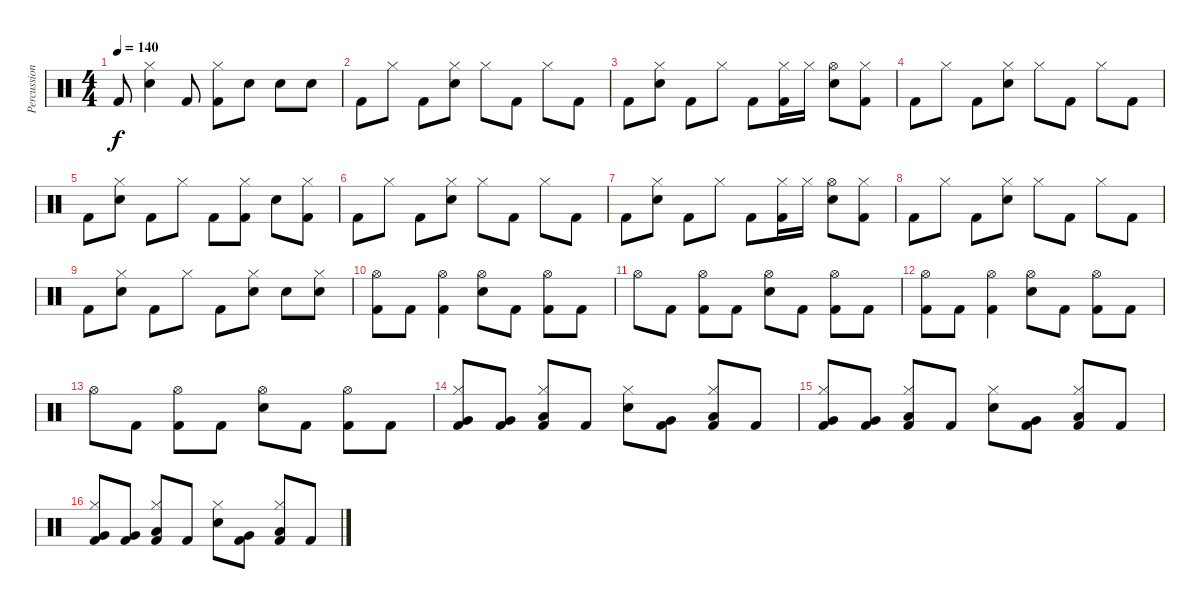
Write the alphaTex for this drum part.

\track ("Percussion" "Percussion") {instrument percussion}
\staff {score}
\articulation defaults
\ts (4 4)
\tempo 140
\clef neutral
\ks c "Kick (hit) 2".8{dy f}
("Electric Snare (hit)" "Hi-Hat (closed)").4 "Kick (hit) 2".8 ("Kick (hit) 2" "Hi-Hat (closed)").8 "Electric Snare (hit)".8 "Electric Snare (hit)".8 "Electric Snare (hit)".8 |
"Kick (hit) 2".8 "Hi-Hat (closed)".8 "Kick (hit) 2".8 ("Electric Snare (hit)" "Hi-Hat (closed)").8 "Hi-Hat (closed)".8 "Kick (hit) 2".8 "Hi-Hat (closed)".8 "Kick (hit) 2".8 |
"Kick (hit) 2".8 ("Electric Snare (hit)" "Hi-Hat (closed)").8 "Kick (hit) 2".8 "Hi-Hat (closed)".8 "Kick (hit) 2".8 ("Kick (hit) 2" "Hi-Hat (closed)").16 "Hi-Hat (closed)".16 ("Electric Snare (hit)" "Hi-Hat (open)").8 ("Kick (hit) 2" "Hi-Hat (closed)").8 |
"Kick (hit) 2".8 "Hi-Hat (closed)".8 "Kick (hit) 2".8 ("Electric Snare (hit)" "Hi-Hat (closed)").8 "Hi-Hat (closed)".8 "Kick (hit) 2".8 "Hi-Hat (closed)".8 "Kick (hit) 2".8 |
"Kick (hit) 2".8 ("Electric Snare (hit)" "Hi-Hat (closed)").8 "Kick (hit) 2".8 "Hi-Hat (closed)".8 "Kick (hit) 2".8 ("Kick (hit) 2" "Hi-Hat (closed)").8 "Electric Snare (hit)".8 ("Kick (hit) 2" "Hi-Hat (closed)").8 |
"Kick (hit) 2".8 "Hi-Hat (closed)".8 "Kick (hit) 2".8 ("Electric Snare (hit)" "Hi-Hat (closed)").8 "Hi-Hat (closed)".8 "Kick (hit) 2".8 "Hi-Hat (closed)".8 "Kick (hit) 2".8 |
"Kick (hit) 2".8 ("Electric Snare (hit)" "Hi-Hat (closed)").8 "Kick (hit) 2".8 "Hi-Hat (closed)".8 "Kick (hit) 2".8 ("Kick (hit) 2" "Hi-Hat (closed)").16 "Hi-Hat (closed)".16 ("Electric Snare (hit)" "Hi-Hat (open)").8 ("Kick (hit) 2" "Hi-Hat (closed)").8 |
"Kick (hit) 2".8 "Hi-Hat (closed)".8 "Kick (hit) 2".8 ("Electric Snare (hit)" "Hi-Hat (closed)").8 "Hi-Hat (closed)".8 "Kick (hit) 2".8 "Hi-Hat (closed)".8 "Kick (hit) 2".8 |
"Kick (hit) 2".8 ("Electric Snare (hit)" "Hi-Hat (closed)").8 "Kick (hit) 2".8 "Hi-Hat (closed)".8 "Kick (hit) 2".8 ("Electric Snare (hit)" "Hi-Hat (closed)").8 "Electric Snare (hit)".8 ("Electric Snare (hit)" "Hi-Hat (closed)").8 |
("Kick (hit) 2" "Hi-Hat (open)").8 "Kick (hit) 2".8 ("Kick (hit) 2" "Hi-Hat (open)").4 ("Electric Snare (hit)" "Hi-Hat (open)").8 "Kick (hit) 2".8 ("Kick (hit) 2" "Hi-Hat (open)").8 "Kick (hit) 2".8 |
"Hi-Hat (open)".8 "Kick (hit) 2".8 ("Kick (hit) 2" "Hi-Hat (open)").8 "Kick (hit) 2".8 ("Electric Snare (hit)" "Hi-Hat (open)").8 "Kick (hit) 2".8 ("Kick (hit) 2" "Hi-Hat (open)").8 "Kick (hit) 2".8 |
("Kick (hit) 2" "Hi-Hat (open)").8 "Kick (hit) 2".8 ("Kick (hit) 2" "Hi-Hat (open)").4 ("Electric Snare (hit)" "Hi-Hat (open)").8 "Kick (hit) 2".8 ("Kick (hit) 2" "Hi-Hat (open)").8 "Kick (hit) 2".8 |
"Hi-Hat (open)".8 "Kick (hit) 2".8 ("Kick (hit) 2" "Hi-Hat (open)").8 "Kick (hit) 2".8 ("Electric Snare (hit)" "Hi-Hat (open)").8 "Kick (hit) 2".8 ("Kick (hit) 2" "Hi-Hat (open)").8 "Kick (hit) 2".8 |
("Very Low Tom (hit)" "Kick (hit) 2" "Hi-Hat (closed)").8 ("Very Low Tom (hit)" "Kick (hit) 2").8 ("Low Floor Tom (hit)" "Kick (hit) 2" "Hi-Hat (closed)").8 "Kick (hit) 2".8 ("Electric Snare (hit)" "Hi-Hat (closed)").8 ("Very Low Tom (hit)" "Kick (hit) 2").8 ("Low Floor Tom (hit)" "Kick (hit) 2" "Hi-Hat (closed)").8 "Kick (hit) 2".8 |
("Very Low Tom (hit)" "Kick (hit) 2" "Hi-Hat (closed)").8 ("Very Low Tom (hit)" "Kick (hit) 2").8 ("Low Floor Tom (hit)" "Kick (hit) 2" "Hi-Hat (closed)").8 "Kick (hit) 2".8 ("Electric Snare (hit)" "Hi-Hat (closed)").8 ("Very Low Tom (hit)" "Kick (hit) 2").8 ("Low Floor Tom (hit)" "Kick (hit) 2" "Hi-Hat (closed)").8 "Kick (hit) 2".8 |
("Very Low Tom (hit)" "Kick (hit) 2" "Hi-Hat (closed)").8 ("Very Low Tom (hit)" "Kick (hit) 2").8 ("Low Floor Tom (hit)" "Kick (hit) 2" "Hi-Hat (closed)").8 "Kick (hit) 2".8 ("Electric Snare (hit)" "Hi-Hat (closed)").8 ("Very Low Tom (hit)" "Kick (hit) 2").8 ("Low Floor Tom (hit)" "Kick (hit) 2" "Hi-Hat (closed)").8 "Kick (hit) 2".8
